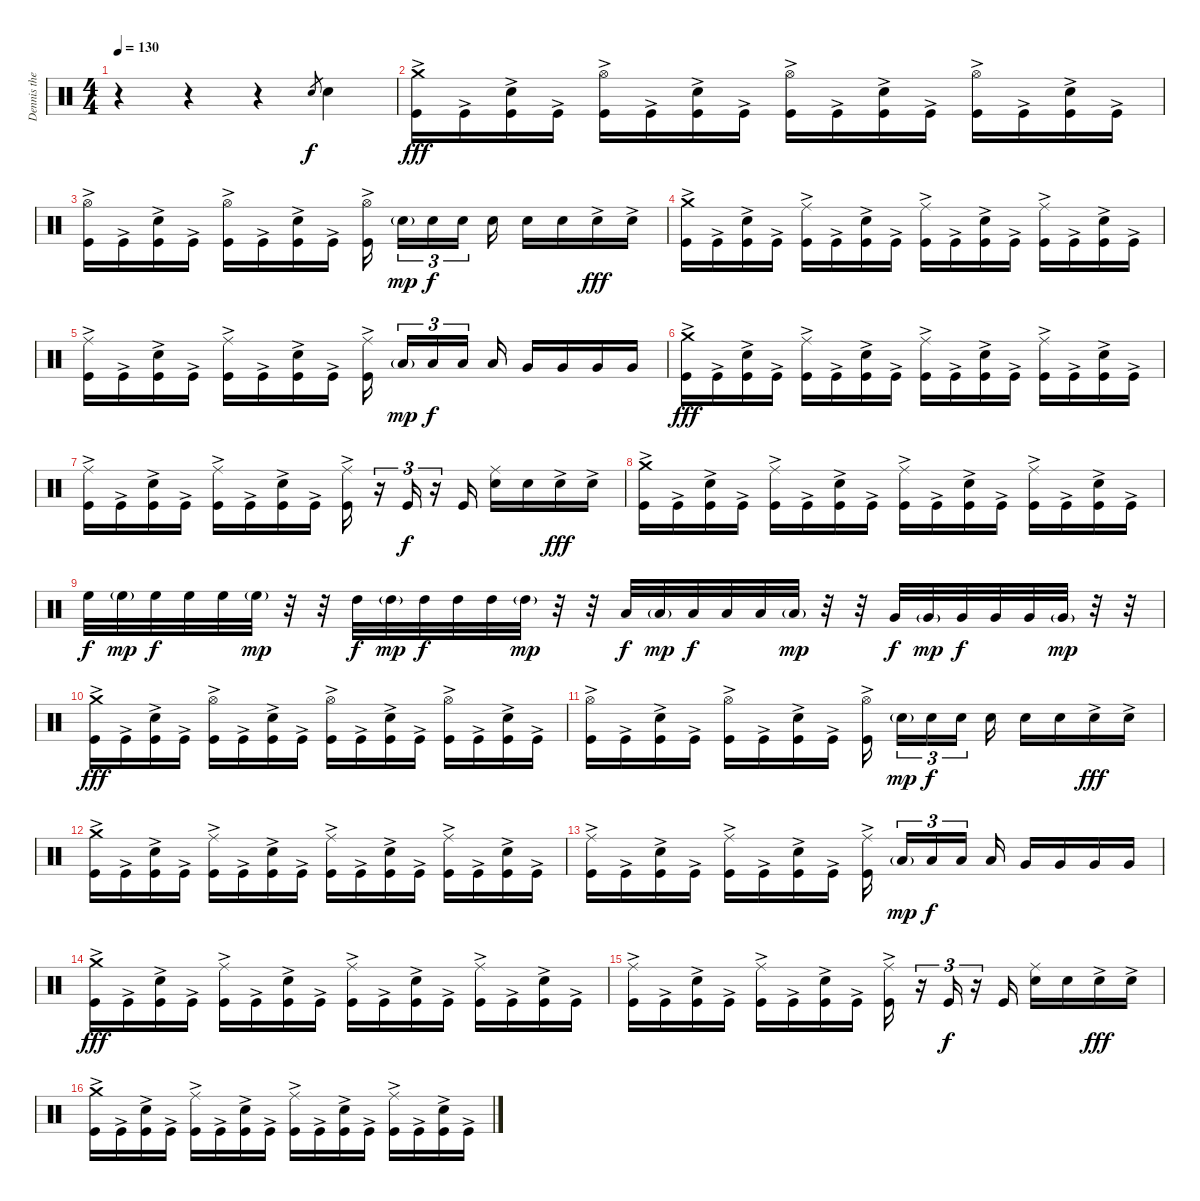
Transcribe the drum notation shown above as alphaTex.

\track ("Dennis the Menace" "Dennis the") {instrument percussion}
\staff {score}
\articulation defaults
\ts (4 4)
\tempo 130
\clef neutral
\ks c
r.4{dy f} r.4 r.4 "Electric Snare (hit)".8{gr} "Electric Snare (hit)".4 |
("Crash medium (hit)" "Kick (hit)"{ac}).16{dy fff} "Kick (hit)"{ac}.16 ("Electric Snare (hit)" "Kick (hit)"{ac}).16 "Kick (hit)"{ac}.16 ("Hi-Hat (open)" "Kick (hit)"{ac}).16 "Kick (hit)"{ac}.16 ("Electric Snare (hit)" "Kick (hit)"{ac}).16 "Kick (hit)"{ac}.16 ("Hi-Hat (open)" "Kick (hit)"{ac}).16 "Kick (hit)"{ac}.16 ("Electric Snare (hit)" "Kick (hit)"{ac}).16 "Kick (hit)"{ac}.16 ("Hi-Hat (open)" "Kick (hit)"{ac}).16 "Kick (hit)"{ac}.16 ("Electric Snare (hit)" "Kick (hit)"{ac}).16 "Kick (hit)"{ac}.16 |
("Hi-Hat (open)" "Kick (hit)"{ac}).16 "Kick (hit)"{ac}.16 ("Electric Snare (hit)" "Kick (hit)"{ac}).16 "Kick (hit)"{ac}.16 ("Hi-Hat (open)" "Kick (hit)"{ac}).16 "Kick (hit)"{ac}.16 ("Electric Snare (hit)" "Kick (hit)"{ac}).16 "Kick (hit)"{ac}.16 ("Hi-Hat (open)" "Kick (hit)"{ac}).16 "Electric Snare (hit)"{g}.16{tu (3 2) dy mp} "Electric Snare (hit)".16{tu (3 2) dy f} "Electric Snare (hit)".16{tu (3 2)} "Electric Snare (hit)".16 "Electric Snare (hit)".16 "Electric Snare (hit)".16 "Electric Snare (hit)"{ac}.16{dy fff} "Electric Snare (hit)"{ac}.16 |
("Crash medium (hit)" "Kick (hit)"{ac}).16 "Kick (hit)"{ac}.16 ("Electric Snare (hit)" "Kick (hit)"{ac}).16 "Kick (hit)"{ac}.16 ("Ride (middle)"{ac} "Kick (hit)"{ac}).16 "Kick (hit)"{ac}.16 ("Electric Snare (hit)" "Kick (hit)"{ac}).16 "Kick (hit)"{ac}.16 ("Ride (middle)"{ac} "Kick (hit)"{ac}).16 "Kick (hit)"{ac}.16 ("Electric Snare (hit)" "Kick (hit)"{ac}).16 "Kick (hit)"{ac}.16 ("Ride (middle)"{ac} "Kick (hit)"{ac}).16 "Kick (hit)"{ac}.16 ("Electric Snare (hit)" "Kick (hit)"{ac}).16 "Kick (hit)"{ac}.16 |
("Ride (middle)"{ac} "Kick (hit)"{ac}).16 "Kick (hit)"{ac}.16 ("Electric Snare (hit)" "Kick (hit)"{ac}).16 "Kick (hit)"{ac}.16 ("Ride (middle)"{ac} "Kick (hit)"{ac}).16 "Kick (hit)"{ac}.16 ("Electric Snare (hit)" "Kick (hit)"{ac}).16 "Kick (hit)"{ac}.16 ("Ride (middle)"{ac} "Kick (hit)"{ac}).16 "Low Tom (hit)"{g}.16{tu (3 2) dy mp} "Low Tom (hit)".16{tu (3 2) dy f} "Low Tom (hit)".16{tu (3 2)} "Low Tom (hit)".16 "Very Low Tom (hit)".16 "Very Low Tom (hit)".16 "Very Low Tom (hit)".16 "Very Low Tom (hit)".16 |
("Crash medium (hit)" "Kick (hit)"{ac}).16{dy fff} "Kick (hit)"{ac}.16 ("Electric Snare (hit)" "Kick (hit)"{ac}).16 "Kick (hit)"{ac}.16 ("Ride (middle)" "Kick (hit)"{ac}).16 "Kick (hit)"{ac}.16 ("Electric Snare (hit)" "Kick (hit)"{ac}).16 "Kick (hit)"{ac}.16 ("Ride (middle)" "Kick (hit)"{ac}).16 "Kick (hit)"{ac}.16 ("Electric Snare (hit)" "Kick (hit)"{ac}).16 "Kick (hit)"{ac}.16 ("Ride (middle)" "Kick (hit)"{ac}).16 "Kick (hit)"{ac}.16 ("Electric Snare (hit)" "Kick (hit)"{ac}).16 "Kick (hit)"{ac}.16 |
("Ride (middle)" "Kick (hit)"{ac}).16 "Kick (hit)"{ac}.16 ("Electric Snare (hit)" "Kick (hit)"{ac}).16 "Kick (hit)"{ac}.16 ("Ride (middle)" "Kick (hit)"{ac}).16 "Kick (hit)"{ac}.16 ("Electric Snare (hit)" "Kick (hit)"{ac}).16 "Kick (hit)"{ac}.16 ("Ride (middle)" "Kick (hit)"{ac}).16 r.16{tu (3 2)} "Kick (hit)".16{tu (3 2) dy f} r.16{tu (3 2)} "Kick (hit)".16 ("Ride (middle)" "Electric Snare (hit)").16 "Electric Snare (hit)".16 "Electric Snare (hit)"{ac}.16{dy fff} "Electric Snare (hit)"{ac}.16 |
("Crash medium (hit)" "Kick (hit)"{ac}).16 "Kick (hit)"{ac}.16 ("Electric Snare (hit)" "Kick (hit)"{ac}).16 "Kick (hit)"{ac}.16 ("Ride (middle)"{ac} "Kick (hit)"{ac}).16 "Kick (hit)"{ac}.16 ("Electric Snare (hit)" "Kick (hit)"{ac}).16 "Kick (hit)"{ac}.16 ("Ride (middle)"{ac} "Kick (hit)"{ac}).16 "Kick (hit)"{ac}.16 ("Electric Snare (hit)" "Kick (hit)"{ac}).16 "Kick (hit)"{ac}.16 ("Ride (middle)"{ac} "Kick (hit)"{ac}).16 "Kick (hit)"{ac}.16 ("Electric Snare (hit)" "Kick (hit)"{ac}).16 "Kick (hit)"{ac}.16 |
"High Floor Tom (hit)".32{dy f} "High Floor Tom (hit)"{g}.32{dy mp} "High Floor Tom (hit)".32{dy f} "High Floor Tom (hit)".32 "High Floor Tom (hit)".32 "High Floor Tom (hit)"{g}.32{dy mp} r.32 r.32 "High Tom (hit)".32{dy f} "High Tom (hit)"{g}.32{dy mp} "High Tom (hit)".32{dy f} "High Tom (hit)".32 "High Tom (hit)".32 "High Tom (hit)"{g}.32{dy mp} r.32 r.32 "Low Tom (hit)".32{dy f} "Low Tom (hit)"{g}.32{dy mp} "Low Tom (hit)".32{dy f} "Low Tom (hit)".32 "Low Tom (hit)".32 "Low Tom (hit)"{g}.32{dy mp} r.32 r.32 "Very Low Tom (hit)".32{dy f} "Very Low Tom (hit)"{g}.32{dy mp} "Very Low Tom (hit)".32{dy f} "Very Low Tom (hit)".32 "Very Low Tom (hit)".32 "Very Low Tom (hit)"{g}.32{dy mp} r.32 r.32 |
("Crash medium (hit)" "Kick (hit)"{ac}).16{dy fff} "Kick (hit)"{ac}.16 ("Electric Snare (hit)" "Kick (hit)"{ac}).16 "Kick (hit)"{ac}.16 ("Hi-Hat (open)" "Kick (hit)"{ac}).16 "Kick (hit)"{ac}.16 ("Electric Snare (hit)" "Kick (hit)"{ac}).16 "Kick (hit)"{ac}.16 ("Hi-Hat (open)" "Kick (hit)"{ac}).16 "Kick (hit)"{ac}.16 ("Electric Snare (hit)" "Kick (hit)"{ac}).16 "Kick (hit)"{ac}.16 ("Hi-Hat (open)" "Kick (hit)"{ac}).16 "Kick (hit)"{ac}.16 ("Electric Snare (hit)" "Kick (hit)"{ac}).16 "Kick (hit)"{ac}.16 |
("Hi-Hat (open)" "Kick (hit)"{ac}).16 "Kick (hit)"{ac}.16 ("Electric Snare (hit)" "Kick (hit)"{ac}).16 "Kick (hit)"{ac}.16 ("Hi-Hat (open)" "Kick (hit)"{ac}).16 "Kick (hit)"{ac}.16 ("Electric Snare (hit)" "Kick (hit)"{ac}).16 "Kick (hit)"{ac}.16 ("Hi-Hat (open)" "Kick (hit)"{ac}).16 "Electric Snare (hit)"{g}.16{tu (3 2) dy mp} "Electric Snare (hit)".16{tu (3 2) dy f} "Electric Snare (hit)".16{tu (3 2)} "Electric Snare (hit)".16 "Electric Snare (hit)".16 "Electric Snare (hit)".16 "Electric Snare (hit)"{ac}.16{dy fff} "Electric Snare (hit)"{ac}.16 |
("Crash medium (hit)" "Kick (hit)"{ac}).16 "Kick (hit)"{ac}.16 ("Electric Snare (hit)" "Kick (hit)"{ac}).16 "Kick (hit)"{ac}.16 ("Ride (middle)"{ac} "Kick (hit)"{ac}).16 "Kick (hit)"{ac}.16 ("Electric Snare (hit)" "Kick (hit)"{ac}).16 "Kick (hit)"{ac}.16 ("Ride (middle)"{ac} "Kick (hit)"{ac}).16 "Kick (hit)"{ac}.16 ("Electric Snare (hit)" "Kick (hit)"{ac}).16 "Kick (hit)"{ac}.16 ("Ride (middle)"{ac} "Kick (hit)"{ac}).16 "Kick (hit)"{ac}.16 ("Electric Snare (hit)" "Kick (hit)"{ac}).16 "Kick (hit)"{ac}.16 |
("Ride (middle)"{ac} "Kick (hit)"{ac}).16 "Kick (hit)"{ac}.16 ("Electric Snare (hit)" "Kick (hit)"{ac}).16 "Kick (hit)"{ac}.16 ("Ride (middle)"{ac} "Kick (hit)"{ac}).16 "Kick (hit)"{ac}.16 ("Electric Snare (hit)" "Kick (hit)"{ac}).16 "Kick (hit)"{ac}.16 ("Ride (middle)"{ac} "Kick (hit)"{ac}).16 "Low Tom (hit)"{g}.16{tu (3 2) dy mp} "Low Tom (hit)".16{tu (3 2) dy f} "Low Tom (hit)".16{tu (3 2)} "Low Tom (hit)".16 "Very Low Tom (hit)".16 "Very Low Tom (hit)".16 "Very Low Tom (hit)".16 "Very Low Tom (hit)".16 |
("Crash medium (hit)" "Kick (hit)"{ac}).16{dy fff} "Kick (hit)"{ac}.16 ("Electric Snare (hit)" "Kick (hit)"{ac}).16 "Kick (hit)"{ac}.16 ("Ride (middle)" "Kick (hit)"{ac}).16 "Kick (hit)"{ac}.16 ("Electric Snare (hit)" "Kick (hit)"{ac}).16 "Kick (hit)"{ac}.16 ("Ride (middle)" "Kick (hit)"{ac}).16 "Kick (hit)"{ac}.16 ("Electric Snare (hit)" "Kick (hit)"{ac}).16 "Kick (hit)"{ac}.16 ("Ride (middle)" "Kick (hit)"{ac}).16 "Kick (hit)"{ac}.16 ("Electric Snare (hit)" "Kick (hit)"{ac}).16 "Kick (hit)"{ac}.16 |
("Ride (middle)" "Kick (hit)"{ac}).16 "Kick (hit)"{ac}.16 ("Electric Snare (hit)" "Kick (hit)"{ac}).16 "Kick (hit)"{ac}.16 ("Ride (middle)" "Kick (hit)"{ac}).16 "Kick (hit)"{ac}.16 ("Electric Snare (hit)" "Kick (hit)"{ac}).16 "Kick (hit)"{ac}.16 ("Ride (middle)" "Kick (hit)"{ac}).16 r.16{tu (3 2)} "Kick (hit)".16{tu (3 2) dy f} r.16{tu (3 2)} "Kick (hit)".16 ("Ride (middle)" "Electric Snare (hit)").16 "Electric Snare (hit)".16 "Electric Snare (hit)"{ac}.16{dy fff} "Electric Snare (hit)"{ac}.16 |
("Crash medium (hit)" "Kick (hit)"{ac}).16 "Kick (hit)"{ac}.16 ("Electric Snare (hit)" "Kick (hit)"{ac}).16 "Kick (hit)"{ac}.16 ("Ride (middle)"{ac} "Kick (hit)"{ac}).16 "Kick (hit)"{ac}.16 ("Electric Snare (hit)" "Kick (hit)"{ac}).16 "Kick (hit)"{ac}.16 ("Ride (middle)"{ac} "Kick (hit)"{ac}).16 "Kick (hit)"{ac}.16 ("Electric Snare (hit)" "Kick (hit)"{ac}).16 "Kick (hit)"{ac}.16 ("Ride (middle)"{ac} "Kick (hit)"{ac}).16 "Kick (hit)"{ac}.16 ("Electric Snare (hit)" "Kick (hit)"{ac}).16 "Kick (hit)"{ac}.16
